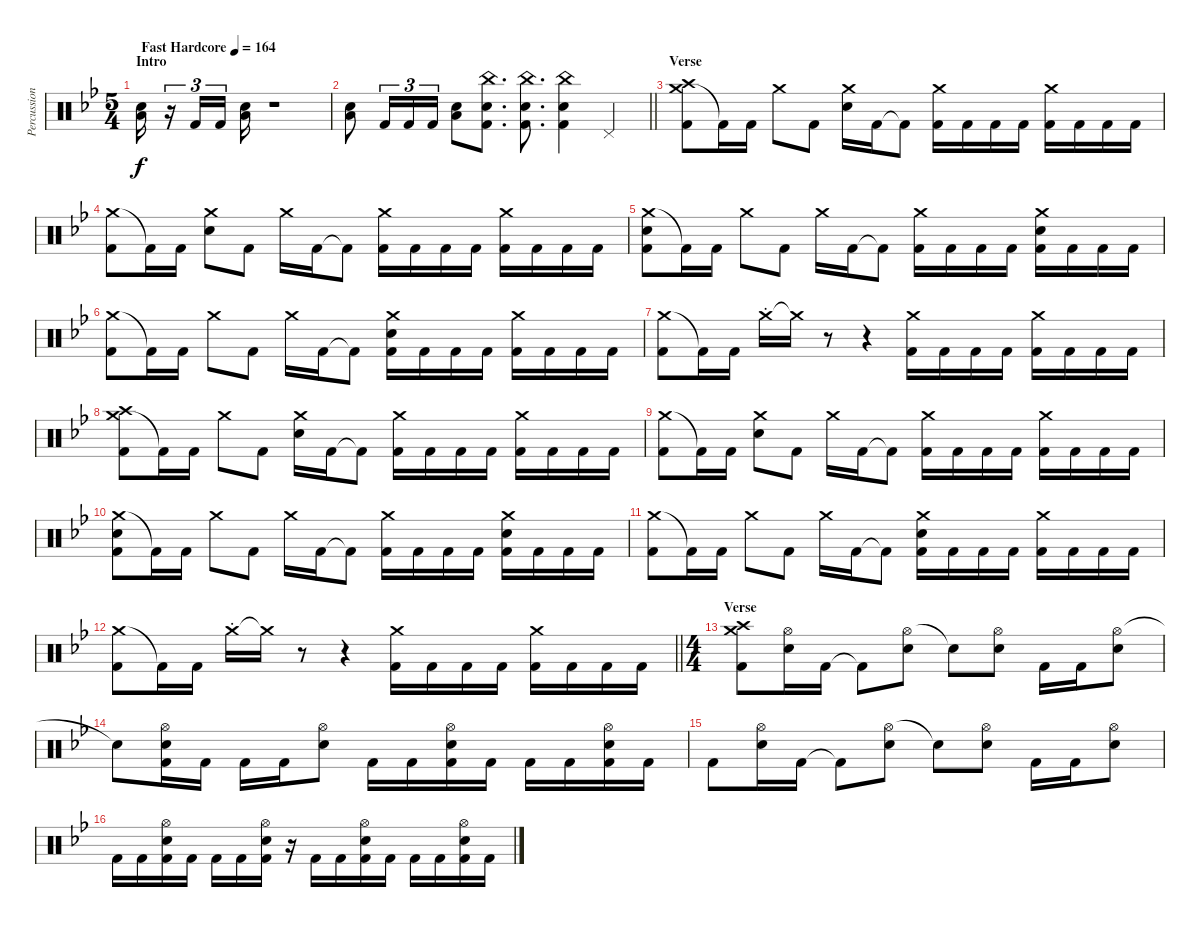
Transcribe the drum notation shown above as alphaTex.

\track ("Percussion" "Percussion") {instrument percussion}
\staff {score}
\articulation defaults
\ts (5 4)
\section ("" "Intro")
\tempo (164 "Fast Hardcore")
\clef neutral
\ks bb
("Electric Snare (hit)" "Low Floor Tom (hit)").16{dy f} r.16{tu (3 2)} "Kick (hit) 2".16{tu (3 2)} "Kick (hit) 2".16{tu (3 2) beam splitsecondary} ("Electric Snare (hit)" "Low Floor Tom (hit)").16 r.1 |
\barLineRight lightlight
("Electric Snare (hit)" "Low Floor Tom (hit)").8 "Kick (hit) 2".16{tu (3 2)} "Kick (hit) 2".16{tu (3 2)} "Kick (hit) 2".16{tu (3 2)} ("Electric Snare (hit)" "Low Floor Tom (hit)").8 ("China (hit)" "Electric Snare (hit)" "Kick (hit) 2").8{d} ("China (hit)" "Electric Snare (hit)" "Kick (hit) 2").8{d} ("China (hit)" "Electric Snare (hit)" "Kick (hit) 2").4 "Pedal Hi-Hat (hit)".4 |
\section ("" "Verse")
("Crash medium (hit)" "Crash high (hit)" "Kick (hit) 2").8 "Kick (hit) 2"{t}.16 "Kick (hit) 2".16 "Crash medium (hit)".8 "Kick (hit) 2".8 ("Crash medium (hit)" "Electric Snare (hit)").16 "Kick (hit) 2".16 "Kick (hit) 2"{t}.8 ("Crash medium (hit)" "Kick (hit) 2").16 "Kick (hit) 2".16 "Kick (hit) 2".16 "Kick (hit) 2".16 ("Crash medium (hit)" "Kick (hit) 2").16 "Kick (hit) 2".16 "Kick (hit) 2".16 "Kick (hit) 2".16 |
("Crash medium (hit)" "Kick (hit) 2").8 "Kick (hit) 2"{t}.16 "Kick (hit) 2".16 ("Crash medium (hit)" "Electric Snare (hit)").8 "Kick (hit) 2".8 "Crash medium (hit)".16 "Kick (hit) 2".16 "Kick (hit) 2"{t}.8 ("Crash medium (hit)" "Kick (hit) 2").16 "Kick (hit) 2".16 "Kick (hit) 2".16 "Kick (hit) 2".16 ("Crash medium (hit)" "Kick (hit) 2").16 "Kick (hit) 2".16 "Kick (hit) 2".16 "Kick (hit) 2".16 |
("Crash medium (hit)" "Electric Snare (hit)" "Kick (hit) 2").8 "Kick (hit) 2"{t}.16 "Kick (hit) 2".16 "Crash medium (hit)".8 "Kick (hit) 2".8 "Crash medium (hit)".16 "Kick (hit) 2".16 "Kick (hit) 2"{t}.8 ("Crash medium (hit)" "Kick (hit) 2").16 "Kick (hit) 2".16 "Kick (hit) 2".16 "Kick (hit) 2".16 ("Crash medium (hit)" "Electric Snare (hit)" "Kick (hit) 2").16 "Kick (hit) 2".16 "Kick (hit) 2".16 "Kick (hit) 2".16 |
("Crash medium (hit)" "Kick (hit) 2").8 "Kick (hit) 2"{t}.16 "Kick (hit) 2".16 "Crash medium (hit)".8 "Kick (hit) 2".8 "Crash medium (hit)".16 "Kick (hit) 2".16 "Kick (hit) 2"{t}.8 ("Crash medium (hit)" "Electric Snare (hit)" "Kick (hit) 2").16 "Kick (hit) 2".16 "Kick (hit) 2".16 "Kick (hit) 2".16 ("Crash medium (hit)" "Kick (hit) 2").16 "Kick (hit) 2".16 "Kick (hit) 2".16 "Kick (hit) 2".16 |
("Crash medium (hit)" "Kick (hit) 2").8 "Kick (hit) 2"{t}.16 "Kick (hit) 2".16 "Crash medium (hit)"{st}.16 "Crash medium (hit)"{t}.16{volume 0} r.8 r.4 ("Crash medium (hit)" "Kick (hit) 2").16{volume 14} "Kick (hit) 2".16 "Kick (hit) 2".16 "Kick (hit) 2".16 ("Crash medium (hit)" "Kick (hit) 2").16 "Kick (hit) 2".16 "Kick (hit) 2".16 "Kick (hit) 2".16 |
("Crash medium (hit)" "Crash high (hit)" "Kick (hit) 2").8 "Kick (hit) 2"{t}.16 "Kick (hit) 2".16 "Crash medium (hit)".8 "Kick (hit) 2".8 ("Crash medium (hit)" "Electric Snare (hit)").16 "Kick (hit) 2".16 "Kick (hit) 2"{t}.8 ("Crash medium (hit)" "Kick (hit) 2").16 "Kick (hit) 2".16 "Kick (hit) 2".16 "Kick (hit) 2".16 ("Crash medium (hit)" "Kick (hit) 2").16 "Kick (hit) 2".16 "Kick (hit) 2".16 "Kick (hit) 2".16 |
("Crash medium (hit)" "Kick (hit) 2").8 "Kick (hit) 2"{t}.16 "Kick (hit) 2".16 ("Crash medium (hit)" "Electric Snare (hit)").8 "Kick (hit) 2".8 "Crash medium (hit)".16 "Kick (hit) 2".16 "Kick (hit) 2"{t}.8 ("Crash medium (hit)" "Kick (hit) 2").16 "Kick (hit) 2".16 "Kick (hit) 2".16 "Kick (hit) 2".16 ("Crash medium (hit)" "Kick (hit) 2").16 "Kick (hit) 2".16 "Kick (hit) 2".16 "Kick (hit) 2".16 |
("Crash medium (hit)" "Electric Snare (hit)" "Kick (hit) 2").8 "Kick (hit) 2"{t}.16 "Kick (hit) 2".16 "Crash medium (hit)".8 "Kick (hit) 2".8 "Crash medium (hit)".16 "Kick (hit) 2".16 "Kick (hit) 2"{t}.8 ("Crash medium (hit)" "Kick (hit) 2").16 "Kick (hit) 2".16 "Kick (hit) 2".16 "Kick (hit) 2".16 ("Crash medium (hit)" "Electric Snare (hit)" "Kick (hit) 2").16 "Kick (hit) 2".16 "Kick (hit) 2".16 "Kick (hit) 2".16 |
("Crash medium (hit)" "Kick (hit) 2").8 "Kick (hit) 2"{t}.16 "Kick (hit) 2".16 "Crash medium (hit)".8 "Kick (hit) 2".8 "Crash medium (hit)".16 "Kick (hit) 2".16 "Kick (hit) 2"{t}.8 ("Crash medium (hit)" "Electric Snare (hit)" "Kick (hit) 2").16 "Kick (hit) 2".16 "Kick (hit) 2".16 "Kick (hit) 2".16 ("Crash medium (hit)" "Kick (hit) 2").16 "Kick (hit) 2".16 "Kick (hit) 2".16 "Kick (hit) 2".16 |
\barLineRight lightlight
("Crash medium (hit)" "Kick (hit) 2").8 "Kick (hit) 2"{t}.16 "Kick (hit) 2".16 "Crash medium (hit)"{st}.16 "Crash medium (hit)"{t}.16{volume 0} r.8 r.4 ("Crash medium (hit)" "Kick (hit) 2").16{volume 14} "Kick (hit) 2".16 "Kick (hit) 2".16 "Kick (hit) 2".16 ("Crash medium (hit)" "Kick (hit) 2").16 "Kick (hit) 2".16 "Kick (hit) 2".16 "Kick (hit) 2".16 |
\ts (4 4)
\section ("" "Verse")
("Crash medium (hit)" "Crash high (hit)" "Kick (hit) 2").8 ("Hi-Hat (open)" "Electric Snare (hit)").16 "Kick (hit) 2".16 "Kick (hit) 2"{t}.8 ("Hi-Hat (open)" "Electric Snare (hit)").8 "Electric Snare (hit)"{t}.8 ("Hi-Hat (open)" "Electric Snare (hit)").8 "Kick (hit) 2".16 "Kick (hit) 2".16 ("Hi-Hat (open)" "Electric Snare (hit)").8 |
"Electric Snare (hit)"{t}.8 ("Hi-Hat (open)" "Electric Snare (hit)" "Kick (hit) 2").16 "Kick (hit) 2".16 "Kick (hit) 2".16 "Kick (hit) 2".16 ("Hi-Hat (open)" "Electric Snare (hit)").8 "Kick (hit) 2".16 "Kick (hit) 2".16 ("Hi-Hat (open)" "Electric Snare (hit)" "Kick (hit) 2").16 "Kick (hit) 2".16 "Kick (hit) 2".16 "Kick (hit) 2".16 ("Hi-Hat (open)" "Electric Snare (hit)" "Kick (hit) 2").16 "Kick (hit) 2".16 |
"Kick (hit) 2".8 ("Hi-Hat (open)" "Electric Snare (hit)").16 "Kick (hit) 2".16 "Kick (hit) 2"{t}.8 ("Hi-Hat (open)" "Electric Snare (hit)").8 "Electric Snare (hit)"{t}.8 ("Hi-Hat (open)" "Electric Snare (hit)").8 "Kick (hit) 2".16 "Kick (hit) 2".16 ("Hi-Hat (open)" "Electric Snare (hit)").8 |
"Kick (hit) 2".16 "Kick (hit) 2".16 ("Hi-Hat (open)" "Electric Snare (hit)" "Kick (hit) 2").16 "Kick (hit) 2".16 "Kick (hit) 2".16 "Kick (hit) 2".16 ("Hi-Hat (open)" "Electric Snare (hit)" "Kick (hit) 2").16 r.16 "Kick (hit) 2".16 "Kick (hit) 2".16 ("Hi-Hat (open)" "Electric Snare (hit)" "Kick (hit) 2").16 "Kick (hit) 2".16 "Kick (hit) 2".16 "Kick (hit) 2".16 ("Hi-Hat (open)" "Electric Snare (hit)" "Kick (hit) 2").16 "Kick (hit) 2".16
